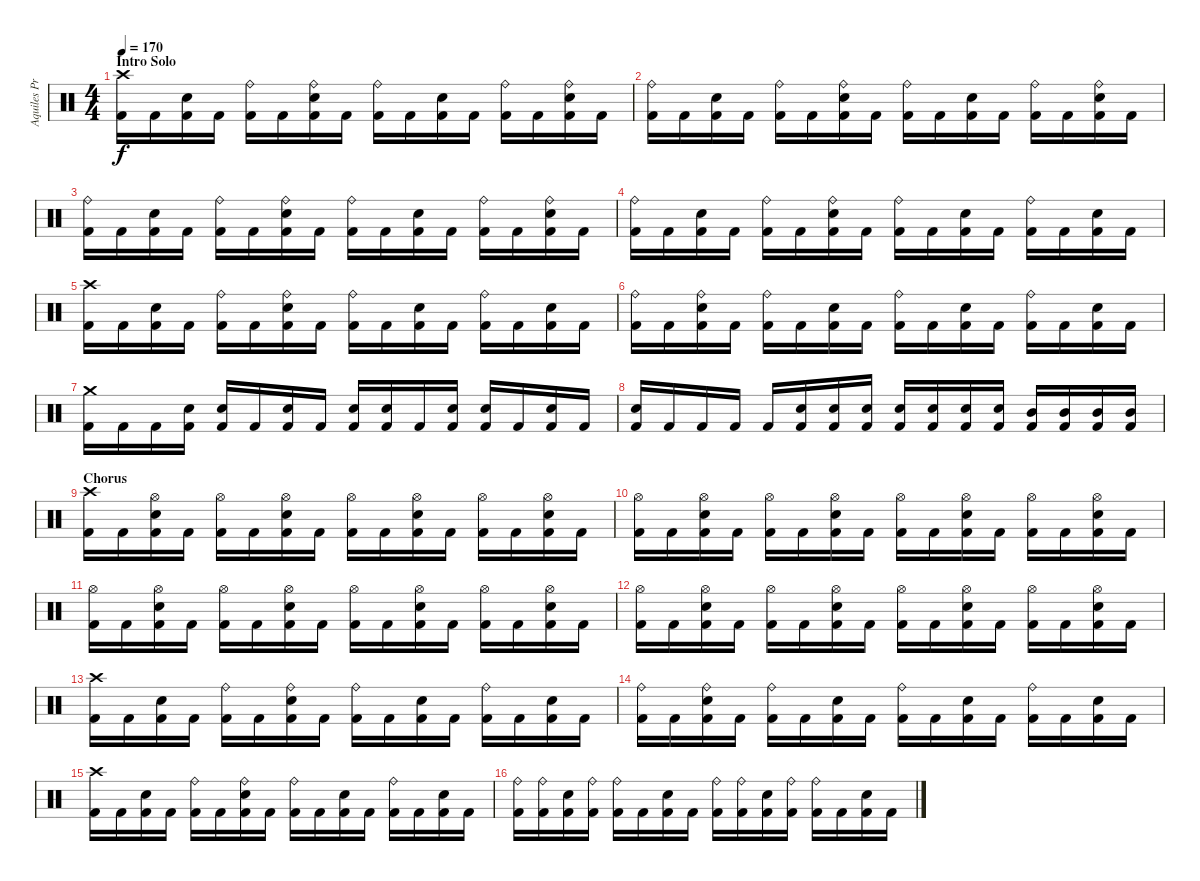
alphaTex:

\track ("Aquiles Priester" "Aquiles Pr") {instrument percussion}
\staff {score}
\articulation defaults
\ts (4 4)
\section ("" "Intro Solo")
\tempo 170
\clef neutral
\ks c
("Kick (hit) 2" "Crash high (hit)").16{dy f} "Kick (hit) 2".16 ("Kick (hit) 2" "Electric Snare (hit)").16 "Kick (hit) 2".16 ("Kick (hit) 2" "Ride (bell)").16 "Kick (hit) 2".16 ("Kick (hit) 2" "Electric Snare (hit)" "Ride (bell)").16 "Kick (hit) 2".16 ("Kick (hit) 2" "Ride (bell)").16 "Kick (hit) 2".16 ("Kick (hit) 2" "Electric Snare (hit)").16 "Kick (hit) 2".16 ("Kick (hit) 2" "Ride (bell)").16 "Kick (hit) 2".16 ("Kick (hit) 2" "Electric Snare (hit)" "Ride (bell)").16 "Kick (hit) 2".16 |
("Kick (hit) 2" "Ride (bell)").16 "Kick (hit) 2".16 ("Kick (hit) 2" "Electric Snare (hit)").16 "Kick (hit) 2".16 ("Kick (hit) 2" "Ride (bell)").16 "Kick (hit) 2".16 ("Kick (hit) 2" "Electric Snare (hit)" "Ride (bell)").16 "Kick (hit) 2".16 ("Kick (hit) 2" "Ride (bell)").16 "Kick (hit) 2".16 ("Kick (hit) 2" "Electric Snare (hit)").16 "Kick (hit) 2".16 ("Kick (hit) 2" "Ride (bell)").16 "Kick (hit) 2".16 ("Kick (hit) 2" "Electric Snare (hit)" "Ride (bell)").16 "Kick (hit) 2".16 |
("Kick (hit) 2" "Ride (bell)").16 "Kick (hit) 2".16 ("Kick (hit) 2" "Electric Snare (hit)").16 "Kick (hit) 2".16 ("Kick (hit) 2" "Ride (bell)").16 "Kick (hit) 2".16 ("Kick (hit) 2" "Electric Snare (hit)" "Ride (bell)").16 "Kick (hit) 2".16 ("Kick (hit) 2" "Ride (bell)").16 "Kick (hit) 2".16 ("Kick (hit) 2" "Electric Snare (hit)").16 "Kick (hit) 2".16 ("Kick (hit) 2" "Ride (bell)").16 "Kick (hit) 2".16 ("Kick (hit) 2" "Electric Snare (hit)" "Ride (bell)").16 "Kick (hit) 2".16 |
("Kick (hit) 2" "Ride (bell)").16 "Kick (hit) 2".16 ("Kick (hit) 2" "Electric Snare (hit)").16 "Kick (hit) 2".16 ("Kick (hit) 2" "Ride (bell)").16 "Kick (hit) 2".16 ("Kick (hit) 2" "Electric Snare (hit)" "Ride (bell)").16 "Kick (hit) 2".16 ("Kick (hit) 2" "Ride (bell)").16 "Kick (hit) 2".16 ("Kick (hit) 2" "Electric Snare (hit)").16 "Kick (hit) 2".16 ("Kick (hit) 2" "Ride (bell)").16 "Kick (hit) 2".16 ("Kick (hit) 2" "Electric Snare (hit)").16 "Kick (hit) 2".16 |
("Kick (hit) 2" "Crash high (hit)").16 "Kick (hit) 2".16 ("Kick (hit) 2" "Electric Snare (hit)").16 "Kick (hit) 2".16 ("Kick (hit) 2" "Ride (bell)").16 "Kick (hit) 2".16 ("Kick (hit) 2" "Electric Snare (hit)" "Ride (bell)").16 "Kick (hit) 2".16 ("Kick (hit) 2" "Ride (bell)").16 "Kick (hit) 2".16 ("Kick (hit) 2" "Electric Snare (hit)").16 "Kick (hit) 2".16 ("Kick (hit) 2" "Ride (bell)").16 "Kick (hit) 2".16 ("Kick (hit) 2" "Electric Snare (hit)").16 "Kick (hit) 2".16 |
("Kick (hit) 2" "Ride (bell)").16 "Kick (hit) 2".16 ("Kick (hit) 2" "Electric Snare (hit)" "Ride (bell)").16 "Kick (hit) 2".16 ("Kick (hit) 2" "Ride (bell)").16 "Kick (hit) 2".16 ("Kick (hit) 2" "Electric Snare (hit)").16 "Kick (hit) 2".16 ("Kick (hit) 2" "Ride (bell)").16 "Kick (hit) 2".16 ("Kick (hit) 2" "Electric Snare (hit)").16 "Kick (hit) 2".16 ("Kick (hit) 2" "Ride (bell)").16 "Kick (hit) 2".16 ("Kick (hit) 2" "Electric Snare (hit)").16 "Kick (hit) 2".16 |
("Crash medium (hit)" "Kick (hit) 2").16 "Kick (hit) 2".16 "Kick (hit) 2".16 ("Electric Snare (hit)" "Kick (hit) 2").16 ("Electric Snare (hit)" "Kick (hit) 2").16 "Kick (hit) 2".16 ("Electric Snare (hit)" "Kick (hit) 2").16 "Kick (hit) 2".16 ("Electric Snare (hit)" "Kick (hit) 2").16 ("Electric Snare (hit)" "Kick (hit) 2").16 "Kick (hit) 2".16 ("Electric Snare (hit)" "Kick (hit) 2").16 ("Electric Snare (hit)" "Kick (hit) 2").16 "Kick (hit) 2".16 ("Electric Snare (hit)" "Kick (hit) 2").16 "Kick (hit) 2".16 |
("Electric Snare (hit)" "Kick (hit) 2").16 "Kick (hit) 2".16 "Kick (hit) 2".16 "Kick (hit) 2".16 "Kick (hit) 2".16 ("Electric Snare (hit)" "Kick (hit) 2").16 ("Electric Snare (hit)" "Kick (hit) 2").16 ("Electric Snare (hit)" "Kick (hit) 2").16 ("Electric Snare (hit)" "Kick (hit) 2").16 ("Electric Snare (hit)" "Kick (hit) 2").16 ("Electric Snare (hit)" "Kick (hit) 2").16 ("Electric Snare (hit)" "Kick (hit) 2").16 ("Mid Tom (hit)" "Kick (hit) 2").16 ("Mid Tom (hit)" "Kick (hit) 2").16 ("Mid Tom (hit)" "Kick (hit) 2").16 ("Mid Tom (hit)" "Kick (hit) 2").16 |
\section ("" "Chorus")
("Kick (hit) 2" "Crash high (hit)").16 "Kick (hit) 2".16 ("Kick (hit) 2" "Electric Snare (hit)" "Hi-Hat (open)").16 "Kick (hit) 2".16 ("Kick (hit) 2" "Hi-Hat (open)").16 "Kick (hit) 2".16 ("Kick (hit) 2" "Electric Snare (hit)" "Hi-Hat (open)").16 "Kick (hit) 2".16 ("Kick (hit) 2" "Hi-Hat (open)").16 "Kick (hit) 2".16 ("Kick (hit) 2" "Electric Snare (hit)" "Hi-Hat (open)").16 "Kick (hit) 2".16 ("Kick (hit) 2" "Hi-Hat (open)").16 "Kick (hit) 2".16 ("Kick (hit) 2" "Electric Snare (hit)" "Hi-Hat (open)").16 "Kick (hit) 2".16 |
("Kick (hit) 2" "Hi-Hat (open)").16 "Kick (hit) 2".16 ("Kick (hit) 2" "Electric Snare (hit)" "Hi-Hat (open)").16 "Kick (hit) 2".16 ("Kick (hit) 2" "Hi-Hat (open)").16 "Kick (hit) 2".16 ("Kick (hit) 2" "Electric Snare (hit)" "Hi-Hat (open)").16 "Kick (hit) 2".16 ("Kick (hit) 2" "Hi-Hat (open)").16 "Kick (hit) 2".16 ("Kick (hit) 2" "Electric Snare (hit)" "Hi-Hat (open)").16 "Kick (hit) 2".16 ("Kick (hit) 2" "Hi-Hat (open)").16 "Kick (hit) 2".16 ("Kick (hit) 2" "Electric Snare (hit)" "Hi-Hat (open)").16 "Kick (hit) 2".16 |
("Kick (hit) 2" "Hi-Hat (open)").16 "Kick (hit) 2".16 ("Kick (hit) 2" "Electric Snare (hit)" "Hi-Hat (open)").16 "Kick (hit) 2".16 ("Kick (hit) 2" "Hi-Hat (open)").16 "Kick (hit) 2".16 ("Kick (hit) 2" "Electric Snare (hit)" "Hi-Hat (open)").16 "Kick (hit) 2".16 ("Kick (hit) 2" "Hi-Hat (open)").16 "Kick (hit) 2".16 ("Kick (hit) 2" "Electric Snare (hit)" "Hi-Hat (open)").16 "Kick (hit) 2".16 ("Kick (hit) 2" "Hi-Hat (open)").16 "Kick (hit) 2".16 ("Kick (hit) 2" "Electric Snare (hit)" "Hi-Hat (open)").16 "Kick (hit) 2".16 |
("Kick (hit) 2" "Hi-Hat (open)").16 "Kick (hit) 2".16 ("Kick (hit) 2" "Electric Snare (hit)" "Hi-Hat (open)").16 "Kick (hit) 2".16 ("Kick (hit) 2" "Hi-Hat (open)").16 "Kick (hit) 2".16 ("Kick (hit) 2" "Electric Snare (hit)" "Hi-Hat (open)").16 "Kick (hit) 2".16 ("Kick (hit) 2" "Hi-Hat (open)").16 "Kick (hit) 2".16 ("Kick (hit) 2" "Electric Snare (hit)" "Hi-Hat (open)").16 "Kick (hit) 2".16 ("Kick (hit) 2" "Hi-Hat (open)").16 "Kick (hit) 2".16 ("Kick (hit) 2" "Electric Snare (hit)" "Hi-Hat (open)").16 "Kick (hit) 2".16 |
("Kick (hit) 2" "Crash high (hit)").16 "Kick (hit) 2".16 ("Kick (hit) 2" "Electric Snare (hit)").16 "Kick (hit) 2".16 ("Kick (hit) 2" "Ride (bell)").16 "Kick (hit) 2".16 ("Kick (hit) 2" "Electric Snare (hit)" "Ride (bell)").16 "Kick (hit) 2".16 ("Kick (hit) 2" "Ride (bell)").16 "Kick (hit) 2".16 ("Kick (hit) 2" "Electric Snare (hit)").16 "Kick (hit) 2".16 ("Kick (hit) 2" "Ride (bell)").16 "Kick (hit) 2".16 ("Kick (hit) 2" "Electric Snare (hit)").16 "Kick (hit) 2".16 |
("Kick (hit) 2" "Ride (bell)").16 "Kick (hit) 2".16 ("Kick (hit) 2" "Electric Snare (hit)" "Ride (bell)").16 "Kick (hit) 2".16 ("Kick (hit) 2" "Ride (bell)").16 "Kick (hit) 2".16 ("Kick (hit) 2" "Electric Snare (hit)").16 "Kick (hit) 2".16 ("Kick (hit) 2" "Ride (bell)").16 "Kick (hit) 2".16 ("Kick (hit) 2" "Electric Snare (hit)").16 "Kick (hit) 2".16 ("Kick (hit) 2" "Ride (bell)").16 "Kick (hit) 2".16 ("Kick (hit) 2" "Electric Snare (hit)").16 "Kick (hit) 2".16 |
("Kick (hit) 2" "Crash high (hit)").16 "Kick (hit) 2".16 ("Kick (hit) 2" "Electric Snare (hit)").16 "Kick (hit) 2".16 ("Kick (hit) 2" "Ride (bell)").16 "Kick (hit) 2".16 ("Kick (hit) 2" "Electric Snare (hit)" "Ride (bell)").16 "Kick (hit) 2".16 ("Kick (hit) 2" "Ride (bell)").16 "Kick (hit) 2".16 ("Kick (hit) 2" "Electric Snare (hit)").16 "Kick (hit) 2".16 ("Kick (hit) 2" "Ride (bell)").16 "Kick (hit) 2".16 ("Kick (hit) 2" "Electric Snare (hit)").16 "Kick (hit) 2".16 |
("Kick (hit) 2" "Ride (bell)").16 ("Kick (hit) 2" "Ride (bell)").16 ("Kick (hit) 2" "Electric Snare (hit)").16 ("Kick (hit) 2" "Ride (bell)").16 ("Kick (hit) 2" "Ride (bell)").16 "Kick (hit) 2".16 ("Kick (hit) 2" "Electric Snare (hit)").16 "Kick (hit) 2".16 ("Kick (hit) 2" "Ride (bell)").16 ("Kick (hit) 2" "Ride (bell)").16 ("Kick (hit) 2" "Electric Snare (hit)").16 ("Kick (hit) 2" "Ride (bell)").16 ("Kick (hit) 2" "Ride (bell)").16 "Kick (hit) 2".16 ("Kick (hit) 2" "Electric Snare (hit)").16 "Kick (hit) 2".16
